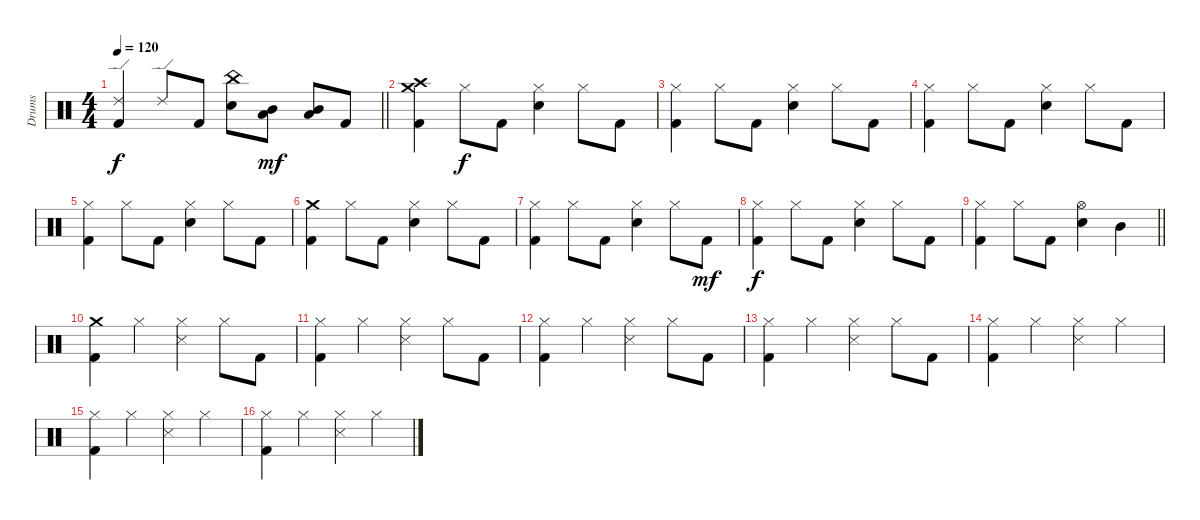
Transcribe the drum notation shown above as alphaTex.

\track ("Drums" "Drums") {instrument percussion}
\staff {score}
\articulation defaults
\ts (4 4)
\tempo 120
\clef neutral
\barLineRight lightlight
\ks c
("Ride (edge) 2" "Kick (hit) 2").4{dy f} "Ride (edge) 2".8 "Kick (hit) 2".8 ("China (hit)" "Electric Snare (hit)").8 ("Mid Tom (hit)" "Low Tom (hit)").8{dy mf} ("Mid Tom (hit)" "Low Tom (hit)").8 "Kick (hit) 2".8 |
("Crash high (hit)" "Crash medium (hit)" "Kick (hit) 2").4 "Hi-Hat (closed)".8{dy f} "Kick (hit) 2".8 ("Hi-Hat (closed)" "Electric Snare (hit)").4 "Hi-Hat (closed)".8 "Kick (hit) 2".8 |
("Hi-Hat (closed)" "Kick (hit) 2").4 "Hi-Hat (closed)".8 "Kick (hit) 2".8 ("Hi-Hat (closed)" "Electric Snare (hit)").4 "Hi-Hat (closed)".8 "Kick (hit) 2".8 |
("Hi-Hat (closed)" "Kick (hit) 2").4 "Hi-Hat (closed)".8 "Kick (hit) 2".8 ("Hi-Hat (closed)" "Electric Snare (hit)").4 "Hi-Hat (closed)".8 "Kick (hit) 2".8 |
("Hi-Hat (closed)" "Kick (hit) 2").4 "Hi-Hat (closed)".8 "Kick (hit) 2".8 ("Hi-Hat (closed)" "Electric Snare (hit)").4 "Hi-Hat (closed)".8 "Kick (hit) 2".8 |
("Crash medium (hit)" "Kick (hit) 2").4 "Hi-Hat (closed)".8 "Kick (hit) 2".8 ("Hi-Hat (closed)" "Electric Snare (hit)").4 "Hi-Hat (closed)".8 "Kick (hit) 2".8 |
("Hi-Hat (closed)" "Kick (hit) 2").4 "Hi-Hat (closed)".8 "Kick (hit) 2".8 ("Hi-Hat (closed)" "Electric Snare (hit)").4 "Hi-Hat (closed)".8 "Kick (hit) 2".8{dy mf} |
("Hi-Hat (closed)" "Kick (hit) 2").4{dy f} "Hi-Hat (closed)".8 "Kick (hit) 2".8 ("Hi-Hat (closed)" "Electric Snare (hit)").4 "Hi-Hat (closed)".8 "Kick (hit) 2".8 |
\barLineRight lightlight
("Hi-Hat (closed)" "Kick (hit) 2").4 "Hi-Hat (closed)".8 "Kick (hit) 2".8 ("Hi-Hat (open)" "Electric Snare (hit)").4 "Mid Tom (hit)".4 |
("Crash medium (hit)" "Kick (hit) 2").4 "Hi-Hat (closed)".4 ("Hi-Hat (closed)" "Snare (side stick) 3").4 "Hi-Hat (closed)".8 "Kick (hit) 2".8 |
("Hi-Hat (closed)" "Kick (hit) 2").4 "Hi-Hat (closed)".4 ("Hi-Hat (closed)" "Snare (side stick) 3").4 "Hi-Hat (closed)".8 "Kick (hit) 2".8 |
("Hi-Hat (closed)" "Kick (hit) 2").4 "Hi-Hat (closed)".4 ("Hi-Hat (closed)" "Snare (side stick) 3").4 "Hi-Hat (closed)".8 "Kick (hit) 2".8 |
("Hi-Hat (closed)" "Kick (hit) 2").4 "Hi-Hat (closed)".4 ("Hi-Hat (closed)" "Snare (side stick) 3").4 "Hi-Hat (closed)".8 "Kick (hit) 2".8 |
("Hi-Hat (closed)" "Kick (hit) 2").4 "Hi-Hat (closed)".4 ("Hi-Hat (closed)" "Snare (side stick) 3").4 "Hi-Hat (closed)".4 |
("Hi-Hat (closed)" "Kick (hit) 2").4 "Hi-Hat (closed)".4 ("Hi-Hat (closed)" "Snare (side stick) 3").4 "Hi-Hat (closed)".4 |
("Hi-Hat (closed)" "Kick (hit) 2").4 "Hi-Hat (closed)".4 ("Hi-Hat (closed)" "Snare (side stick) 3").4 "Hi-Hat (closed)".4
